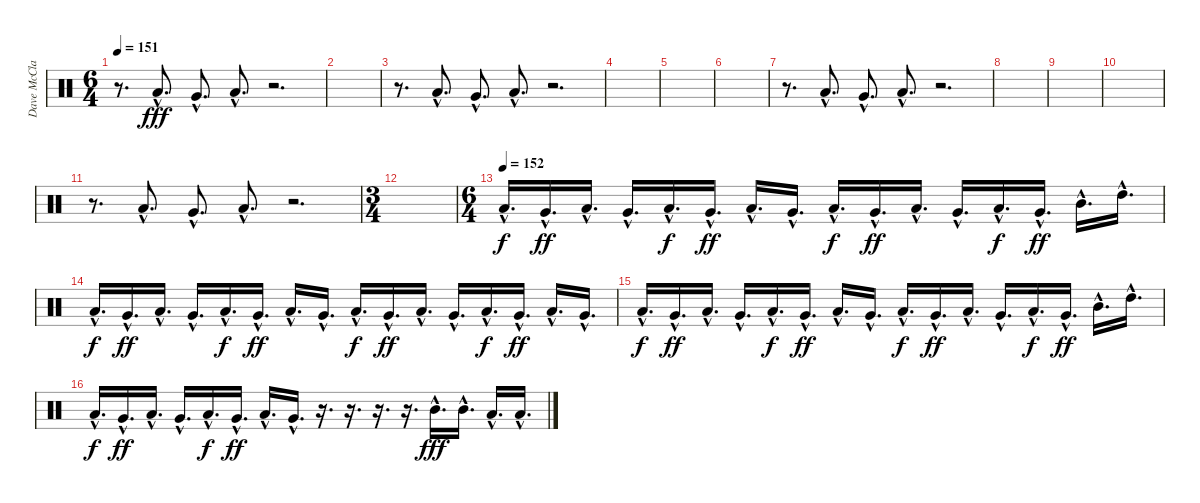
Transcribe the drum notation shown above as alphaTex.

\track ("Dave McClain" "Dave McCla") {instrument percussion}
\staff {score}
\articulation defaults
\ts (6 4)
\tempo 151
\clef neutral
\ks c
r.8{d dy fff} "Low Tom (hit)"{hac}.8{d} "Very Low Tom (hit)"{hac}.8{d} "Low Floor Tom (hit)"{hac}.8{d} r.2{d} |
|
r.8{d} "Low Tom (hit)"{hac}.8{d} "Very Low Tom (hit)"{hac}.8{d} "Low Floor Tom (hit)"{hac}.8{d} r.2{d} |
|
|
|
r.8{d} "Low Tom (hit)"{hac}.8{d} "Very Low Tom (hit)"{hac}.8{d} "Low Floor Tom (hit)"{hac}.8{d} r.2{d} |
|
|
|
r.8{d} "Low Tom (hit)"{hac}.8{d} "Very Low Tom (hit)"{hac}.8{d} "Low Floor Tom (hit)"{hac}.8{d} r.2{d} |
\ts (3 4)
|
\ts (6 4)
\tempo (152)
"Low Tom (hit)"{hac}.16{d dy f} "Very Low Tom (hit)"{hac}.16{d dy ff} "Low Tom (hit)"{hac}.16{d} "Very Low Tom (hit)"{hac}.16{d} "Low Tom (hit)"{hac}.16{d dy f} "Very Low Tom (hit)"{hac}.16{d dy ff} "Low Tom (hit)"{hac}.16{d} "Very Low Tom (hit)"{hac}.16{d} "Low Tom (hit)"{hac}.16{d dy f} "Very Low Tom (hit)"{hac}.16{d dy ff} "Low Tom (hit)"{hac}.16{d} "Very Low Tom (hit)"{hac}.16{d} "Low Tom (hit)"{hac}.16{d dy f} "Very Low Tom (hit)"{hac}.16{d dy ff} "Mid Tom (hit)"{hac}.16{d} "High Tom (hit)"{hac}.16{d} |
"Low Tom (hit)"{hac}.16{d dy f} "Very Low Tom (hit)"{hac}.16{d dy ff} "Low Tom (hit)"{hac}.16{d} "Very Low Tom (hit)"{hac}.16{d} "Low Tom (hit)"{hac}.16{d dy f} "Very Low Tom (hit)"{hac}.16{d dy ff} "Low Tom (hit)"{hac}.16{d} "Very Low Tom (hit)"{hac}.16{d} "Low Tom (hit)"{hac}.16{d dy f} "Very Low Tom (hit)"{hac}.16{d dy ff} "Low Tom (hit)"{hac}.16{d} "Very Low Tom (hit)"{hac}.16{d} "Low Tom (hit)"{hac}.16{d dy f} "Very Low Tom (hit)"{hac}.16{d dy ff} "Low Tom (hit)"{hac}.16{d} "Very Low Tom (hit)"{hac}.16{d} |
"Low Tom (hit)"{hac}.16{d dy f} "Very Low Tom (hit)"{hac}.16{d dy ff} "Low Tom (hit)"{hac}.16{d} "Very Low Tom (hit)"{hac}.16{d} "Low Tom (hit)"{hac}.16{d dy f} "Very Low Tom (hit)"{hac}.16{d dy ff} "Low Tom (hit)"{hac}.16{d} "Very Low Tom (hit)"{hac}.16{d} "Low Tom (hit)"{hac}.16{d dy f} "Very Low Tom (hit)"{hac}.16{d dy ff} "Low Tom (hit)"{hac}.16{d} "Very Low Tom (hit)"{hac}.16{d} "Low Tom (hit)"{hac}.16{d dy f} "Very Low Tom (hit)"{hac}.16{d dy ff} "Mid Tom (hit)"{hac}.16{d} "High Tom (hit)"{hac}.16{d} |
"Low Tom (hit)"{hac}.16{d dy f} "Very Low Tom (hit)"{hac}.16{d dy ff} "Low Tom (hit)"{hac}.16{d} "Very Low Tom (hit)"{hac}.16{d} "Low Tom (hit)"{hac}.16{d dy f} "Very Low Tom (hit)"{hac}.16{d dy ff} "Low Tom (hit)"{hac}.16{d} "Very Low Tom (hit)"{hac}.16{d} r.16{d} r.16{d} r.16{d} r.16{d} "Mid Tom (hit)"{hac}.16{d dy fff} "Mid Tom (hit)"{hac}.16{d} "Low Tom (hit)"{hac}.16{d} "Low Tom (hit)"{hac}.16{d}
